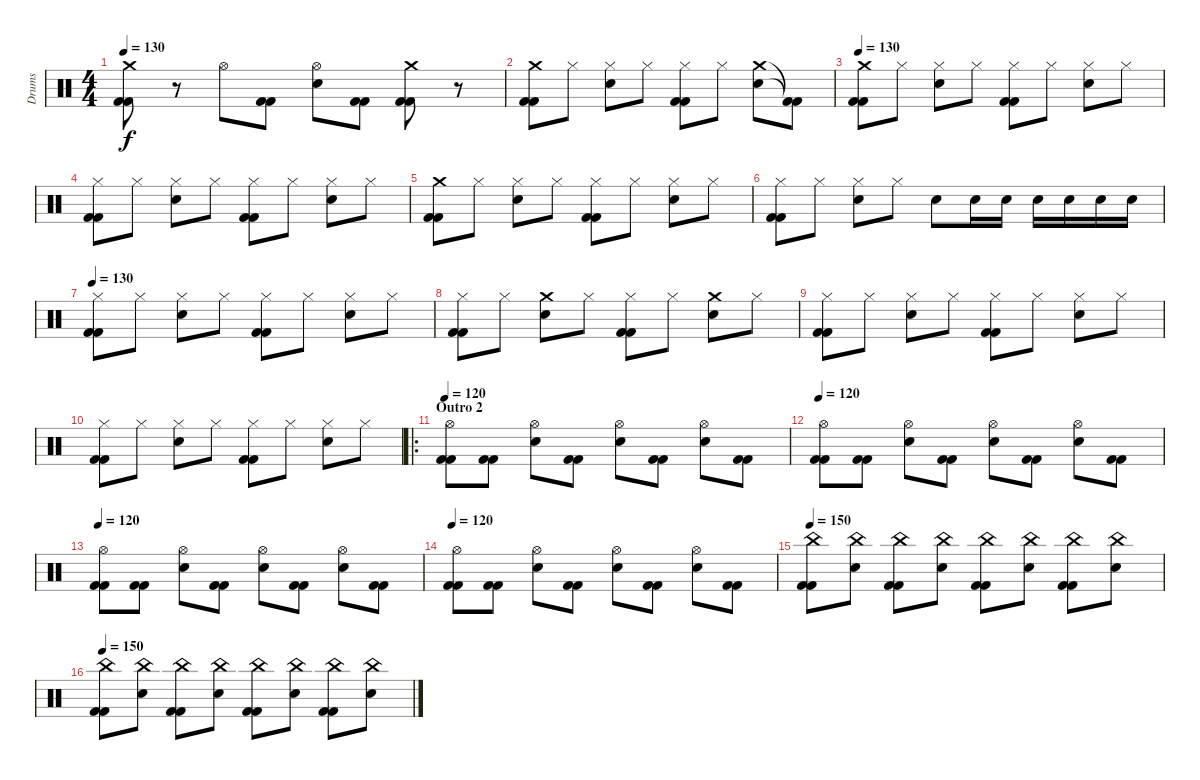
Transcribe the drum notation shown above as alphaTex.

\track ("Drums" "Drums") {instrument percussion}
\staff {score}
\articulation defaults
\ts (4 4)
\tempo 130
\clef neutral
\ks c
("Crash medium (hit)" "Kick (hit) 2" "Kick (hit) 2").8{dy f} r.8 "Hi-Hat (open)".8 ("Kick (hit) 2" "Kick (hit) 2").8 ("Electric Snare (hit)" "Hi-Hat (open)").8 ("Kick (hit) 2" "Kick (hit) 2").8 ("Crash medium (hit)" "Kick (hit) 2" "Kick (hit) 2").8 r.8 |
("Crash medium (hit)" "Kick (hit) 2" "Kick (hit) 2").8 "Hi-Hat (closed)".8 ("Electric Snare (hit)" "Hi-Hat (closed)").8 "Hi-Hat (closed)".8 ("Hi-Hat (closed)" "Kick (hit) 2" "Kick (hit) 2").8 "Hi-Hat (closed)".8 ("Electric Snare (hit)" "Crash medium (hit)").8 ("Kick (hit) 2"{t} "Kick (hit) 2"{t}).8 |
\tempo 130
("Crash medium (hit)" "Kick (hit) 2" "Kick (hit) 2").8 "Hi-Hat (closed)".8 ("Electric Snare (hit)" "Hi-Hat (closed)").8 "Hi-Hat (closed)".8 ("Hi-Hat (closed)" "Kick (hit) 2" "Kick (hit) 2").8 "Hi-Hat (closed)".8 ("Electric Snare (hit)" "Hi-Hat (closed)").8 "Hi-Hat (closed)".8 |
("Hi-Hat (closed)" "Kick (hit) 2" "Kick (hit) 2").8 "Hi-Hat (closed)".8 ("Electric Snare (hit)" "Hi-Hat (closed)").8 "Hi-Hat (closed)".8 ("Kick (hit) 2" "Kick (hit) 2" "Hi-Hat (closed)").8 "Hi-Hat (closed)".8 ("Hi-Hat (closed)" "Electric Snare (hit)").8 "Hi-Hat (closed)".8 |
("Crash medium (hit)" "Kick (hit) 2" "Kick (hit) 2").8 "Hi-Hat (closed)".8 ("Electric Snare (hit)" "Hi-Hat (closed)").8 "Hi-Hat (closed)".8 ("Kick (hit) 2" "Kick (hit) 2" "Hi-Hat (closed)").8 "Hi-Hat (closed)".8 ("Hi-Hat (closed)" "Electric Snare (hit)").8 "Hi-Hat (closed)".8 |
("Hi-Hat (closed)" "Kick (hit) 2" "Kick (hit) 2").8 "Hi-Hat (closed)".8 ("Electric Snare (hit)" "Hi-Hat (closed)").8 "Hi-Hat (closed)".8 "Electric Snare (hit)".8 "Electric Snare (hit)".16 "Electric Snare (hit)".16 "Electric Snare (hit)".16 "Electric Snare (hit)".16 "Electric Snare (hit)".16 "Electric Snare (hit)".16 |
\tempo 130
("Hi-Hat (closed)" "Kick (hit) 2" "Kick (hit) 2").8 "Hi-Hat (closed)".8 ("Electric Snare (hit)" "Hi-Hat (closed)").8 "Hi-Hat (closed)".8 ("Hi-Hat (closed)" "Kick (hit) 2" "Kick (hit) 2").8 "Hi-Hat (closed)".8 ("Electric Snare (hit)" "Hi-Hat (closed)").8 "Hi-Hat (closed)".8 |
("Hi-Hat (closed)" "Kick (hit) 2" "Kick (hit) 2").8 "Hi-Hat (closed)".8 ("Electric Snare (hit)" "Crash medium (hit)").8 "Hi-Hat (closed)".8 ("Hi-Hat (closed)" "Kick (hit) 2" "Kick (hit) 2").8 "Hi-Hat (closed)".8 ("Electric Snare (hit)" "Crash medium (hit)").8 "Hi-Hat (closed)".8 |
("Hi-Hat (closed)" "Kick (hit) 2" "Kick (hit) 2").8 "Hi-Hat (closed)".8 ("Electric Snare (hit)" "Hi-Hat (closed)").8 "Hi-Hat (closed)".8 ("Hi-Hat (closed)" "Kick (hit) 2" "Kick (hit) 2").8 "Hi-Hat (closed)".8 ("Electric Snare (hit)" "Hi-Hat (closed)").8 "Hi-Hat (closed)".8 |
("Hi-Hat (closed)" "Kick (hit) 2" "Kick (hit) 2").8 "Hi-Hat (closed)".8 ("Electric Snare (hit)" "Hi-Hat (closed)").8 "Hi-Hat (closed)".8 ("Hi-Hat (closed)" "Kick (hit) 2" "Kick (hit) 2").8 "Hi-Hat (closed)".8 ("Electric Snare (hit)" "Hi-Hat (closed)").8 "Hi-Hat (closed)".8 |
\ro
\section ("" "Outro 2")
\tempo 120
("Hi-Hat (open)" "Kick (hit) 2" "Kick (hit) 2").8 ("Kick (hit) 2" "Kick (hit) 2").8 ("Electric Snare (hit)" "Hi-Hat (open)").8 ("Kick (hit) 2" "Kick (hit) 2").8 ("Electric Snare (hit)" "Hi-Hat (open)").8 ("Kick (hit) 2" "Kick (hit) 2").8 ("Electric Snare (hit)" "Hi-Hat (open)").8 ("Kick (hit) 2" "Kick (hit) 2").8 |
\tempo 120
("Hi-Hat (open)" "Kick (hit) 2" "Kick (hit) 2").8 ("Kick (hit) 2" "Kick (hit) 2").8 ("Electric Snare (hit)" "Hi-Hat (open)").8 ("Kick (hit) 2" "Kick (hit) 2").8 ("Electric Snare (hit)" "Hi-Hat (open)").8 ("Kick (hit) 2" "Kick (hit) 2").8 ("Electric Snare (hit)" "Hi-Hat (open)").8 ("Kick (hit) 2" "Kick (hit) 2").8 |
\tempo 120
("Hi-Hat (open)" "Kick (hit) 2" "Kick (hit) 2").8 ("Kick (hit) 2" "Kick (hit) 2").8 ("Electric Snare (hit)" "Hi-Hat (open)").8 ("Kick (hit) 2" "Kick (hit) 2").8 ("Electric Snare (hit)" "Hi-Hat (open)").8 ("Kick (hit) 2" "Kick (hit) 2").8 ("Electric Snare (hit)" "Hi-Hat (open)").8 ("Kick (hit) 2" "Kick (hit) 2").8 |
\tempo 120
("Hi-Hat (open)" "Kick (hit) 2" "Kick (hit) 2").8 ("Kick (hit) 2" "Kick (hit) 2").8 ("Electric Snare (hit)" "Hi-Hat (open)").8 ("Kick (hit) 2" "Kick (hit) 2").8 ("Electric Snare (hit)" "Hi-Hat (open)").8 ("Kick (hit) 2" "Kick (hit) 2").8 ("Electric Snare (hit)" "Hi-Hat (open)").8 ("Kick (hit) 2" "Kick (hit) 2").8 |
\tempo 150
("China (hit)" "Kick (hit) 2" "Kick (hit) 2").8 ("Electric Snare (hit)" "China (hit)").8 ("Kick (hit) 2" "Kick (hit) 2" "China (hit)").8 ("Electric Snare (hit)" "China (hit)").8 ("China (hit)" "Kick (hit) 2" "Kick (hit) 2").8 ("Electric Snare (hit)" "China (hit)").8 ("China (hit)" "Kick (hit) 2" "Kick (hit) 2").8 ("Electric Snare (hit)" "China (hit)").8 |
\tempo 150
("China (hit)" "Kick (hit) 2" "Kick (hit) 2").8 ("Electric Snare (hit)" "China (hit)").8 ("Kick (hit) 2" "Kick (hit) 2" "China (hit)").8 ("Electric Snare (hit)" "China (hit)").8 ("China (hit)" "Kick (hit) 2" "Kick (hit) 2").8 ("Electric Snare (hit)" "China (hit)").8 ("China (hit)" "Kick (hit) 2" "Kick (hit) 2").8 ("Electric Snare (hit)" "China (hit)").8
